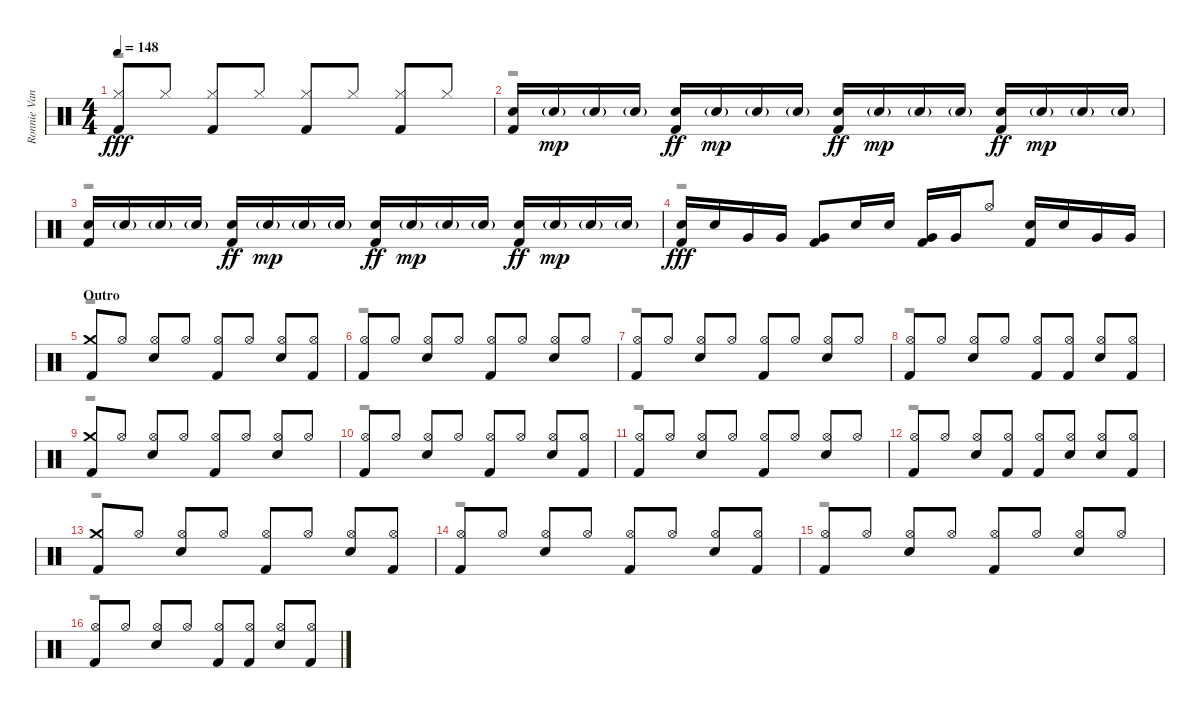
\track ("Ronnie Vannucci Jr. - Drums" "Ronnie Van") {instrument percussion}
\staff {score}
\articulation defaults
\voice
\ts (4 4)
\tempo 148
\clef neutral
\ks c
("Hi-Hat (closed)" "Kick (hit) 2").8{dy fff} "Hi-Hat (closed)".8 ("Hi-Hat (closed)" "Kick (hit) 2").8 "Hi-Hat (closed)".8 ("Hi-Hat (closed)" "Kick (hit) 2").8 "Hi-Hat (closed)".8 ("Hi-Hat (closed)" "Kick (hit) 2").8 "Hi-Hat (closed)".8 |
("Electric Snare (hit)" "Kick (hit) 2").16 "Electric Snare (hit)"{g}.16{dy mp} "Electric Snare (hit)"{g}.16 "Electric Snare (hit)"{g}.16 ("Electric Snare (hit)" "Kick (hit) 2").16{dy ff} "Electric Snare (hit)"{g}.16{dy mp} "Electric Snare (hit)"{g}.16 "Electric Snare (hit)"{g}.16 ("Electric Snare (hit)" "Kick (hit) 2").16{dy ff} "Electric Snare (hit)"{g}.16{dy mp} "Electric Snare (hit)"{g}.16 "Electric Snare (hit)"{g}.16 ("Electric Snare (hit)" "Kick (hit) 2").16{dy ff} "Electric Snare (hit)"{g}.16{dy mp} "Electric Snare (hit)"{g}.16 "Electric Snare (hit)"{g}.16 |
("Electric Snare (hit)" "Kick (hit) 2").16 "Electric Snare (hit)"{g}.16 "Electric Snare (hit)"{g}.16 "Electric Snare (hit)"{g}.16 ("Electric Snare (hit)" "Kick (hit) 2").16{dy ff} "Electric Snare (hit)"{g}.16{dy mp} "Electric Snare (hit)"{g}.16 "Electric Snare (hit)"{g}.16 ("Electric Snare (hit)" "Kick (hit) 2").16{dy ff} "Electric Snare (hit)"{g}.16{dy mp} "Electric Snare (hit)"{g}.16 "Electric Snare (hit)"{g}.16 ("Electric Snare (hit)" "Kick (hit) 2").16{dy ff} "Electric Snare (hit)"{g}.16{dy mp} "Electric Snare (hit)"{g}.16 "Electric Snare (hit)"{g}.16 |
("Electric Snare (hit)" "Kick (hit) 2").16{dy fff} "Electric Snare (hit)".16 "Very Low Tom (hit)".16 "Very Low Tom (hit)".16 ("Very Low Tom (hit)" "Kick (hit) 2").8 "Electric Snare (hit)".16 "Electric Snare (hit)".16 ("Very Low Tom (hit)" "Kick (hit) 2").16 "Very Low Tom (hit)".16 "Hi-Hat (open)".8 ("Electric Snare (hit)" "Kick (hit) 2").16 "Electric Snare (hit)".16 "Very Low Tom (hit)".16 "Very Low Tom (hit)".16 |
\section ("" "Outro")
("Crash medium (hit)" "Kick (hit) 2").8 "Hi-Hat (open)".8 ("Hi-Hat (open)" "Electric Snare (hit)").8 "Hi-Hat (open)".8 ("Hi-Hat (open)" "Kick (hit) 2").8 "Hi-Hat (open)".8 ("Hi-Hat (open)" "Electric Snare (hit)").8 ("Hi-Hat (open)" "Kick (hit) 2").8 |
("Hi-Hat (open)" "Kick (hit) 2").8 "Hi-Hat (open)".8 ("Hi-Hat (open)" "Electric Snare (hit)").8 "Hi-Hat (open)".8 ("Hi-Hat (open)" "Kick (hit) 2").8 "Hi-Hat (open)".8 ("Hi-Hat (open)" "Electric Snare (hit)").8 "Hi-Hat (open)".8 |
("Hi-Hat (open)" "Kick (hit) 2").8 "Hi-Hat (open)".8 ("Hi-Hat (open)" "Electric Snare (hit)").8 "Hi-Hat (open)".8 ("Hi-Hat (open)" "Kick (hit) 2").8 "Hi-Hat (open)".8 ("Hi-Hat (open)" "Electric Snare (hit)").8 "Hi-Hat (open)".8 |
("Hi-Hat (open)" "Kick (hit) 2").8 "Hi-Hat (open)".8 ("Hi-Hat (open)" "Electric Snare (hit)").8 "Hi-Hat (open)".8 ("Hi-Hat (open)" "Kick (hit) 2").8 ("Hi-Hat (open)" "Kick (hit) 2").8 ("Hi-Hat (open)" "Electric Snare (hit)").8 ("Hi-Hat (open)" "Kick (hit) 2").8 |
("Crash medium (hit)" "Kick (hit) 2").8 "Hi-Hat (open)".8 ("Hi-Hat (open)" "Electric Snare (hit)").8 "Hi-Hat (open)".8 ("Hi-Hat (open)" "Kick (hit) 2").8 "Hi-Hat (open)".8 ("Hi-Hat (open)" "Electric Snare (hit)").8 "Hi-Hat (open)".8 |
("Hi-Hat (open)" "Kick (hit) 2").8 "Hi-Hat (open)".8 ("Hi-Hat (open)" "Electric Snare (hit)").8 "Hi-Hat (open)".8 ("Hi-Hat (open)" "Kick (hit) 2").8 "Hi-Hat (open)".8 ("Hi-Hat (open)" "Electric Snare (hit)").8 ("Hi-Hat (open)" "Kick (hit) 2").8 |
("Hi-Hat (open)" "Kick (hit) 2").8 "Hi-Hat (open)".8 ("Hi-Hat (open)" "Electric Snare (hit)").8 "Hi-Hat (open)".8 ("Hi-Hat (open)" "Kick (hit) 2").8 "Hi-Hat (open)".8 ("Hi-Hat (open)" "Electric Snare (hit)").8 "Hi-Hat (open)".8 |
("Hi-Hat (open)" "Kick (hit) 2").8 "Hi-Hat (open)".8 ("Hi-Hat (open)" "Electric Snare (hit)").8 ("Hi-Hat (open)" "Kick (hit) 2").8 ("Hi-Hat (open)" "Kick (hit) 2").8 ("Hi-Hat (open)" "Electric Snare (hit)").8 ("Hi-Hat (open)" "Electric Snare (hit)").8 ("Hi-Hat (open)" "Kick (hit) 2").8 |
("Crash medium (hit)" "Kick (hit) 2").8 "Hi-Hat (open)".8 ("Hi-Hat (open)" "Electric Snare (hit)").8 "Hi-Hat (open)".8 ("Hi-Hat (open)" "Kick (hit) 2").8 "Hi-Hat (open)".8 ("Hi-Hat (open)" "Electric Snare (hit)").8 ("Hi-Hat (open)" "Kick (hit) 2").8 |
("Hi-Hat (open)" "Kick (hit) 2").8 "Hi-Hat (open)".8 ("Hi-Hat (open)" "Electric Snare (hit)").8 "Hi-Hat (open)".8 ("Hi-Hat (open)" "Kick (hit) 2").8 "Hi-Hat (open)".8 ("Hi-Hat (open)" "Electric Snare (hit)").8 ("Hi-Hat (open)" "Kick (hit) 2").8 |
("Hi-Hat (open)" "Kick (hit) 2").8 "Hi-Hat (open)".8 ("Hi-Hat (open)" "Electric Snare (hit)").8 "Hi-Hat (open)".8 ("Hi-Hat (open)" "Kick (hit) 2").8 "Hi-Hat (open)".8 ("Hi-Hat (open)" "Electric Snare (hit)").8 "Hi-Hat (open)".8 |
("Hi-Hat (open)" "Kick (hit) 2").8 "Hi-Hat (open)".8 ("Hi-Hat (open)" "Electric Snare (hit)").8 "Hi-Hat (open)".8 ("Hi-Hat (open)" "Kick (hit) 2").8 ("Hi-Hat (open)" "Kick (hit) 2").8 ("Hi-Hat (open)" "Electric Snare (hit)").8 ("Hi-Hat (open)" "Kick (hit) 2").8
\voice
\clef neutral
\ottava regular
\simile none
\ks c
r.1{dy f} |
r.1 |
r.1 |
r.1 |
r.1 |
r.1 |
r.1 |
r.1 |
r.1 |
r.1 |
r.1 |
r.1 |
r.1 |
r.1 |
r.1 |
r.1
